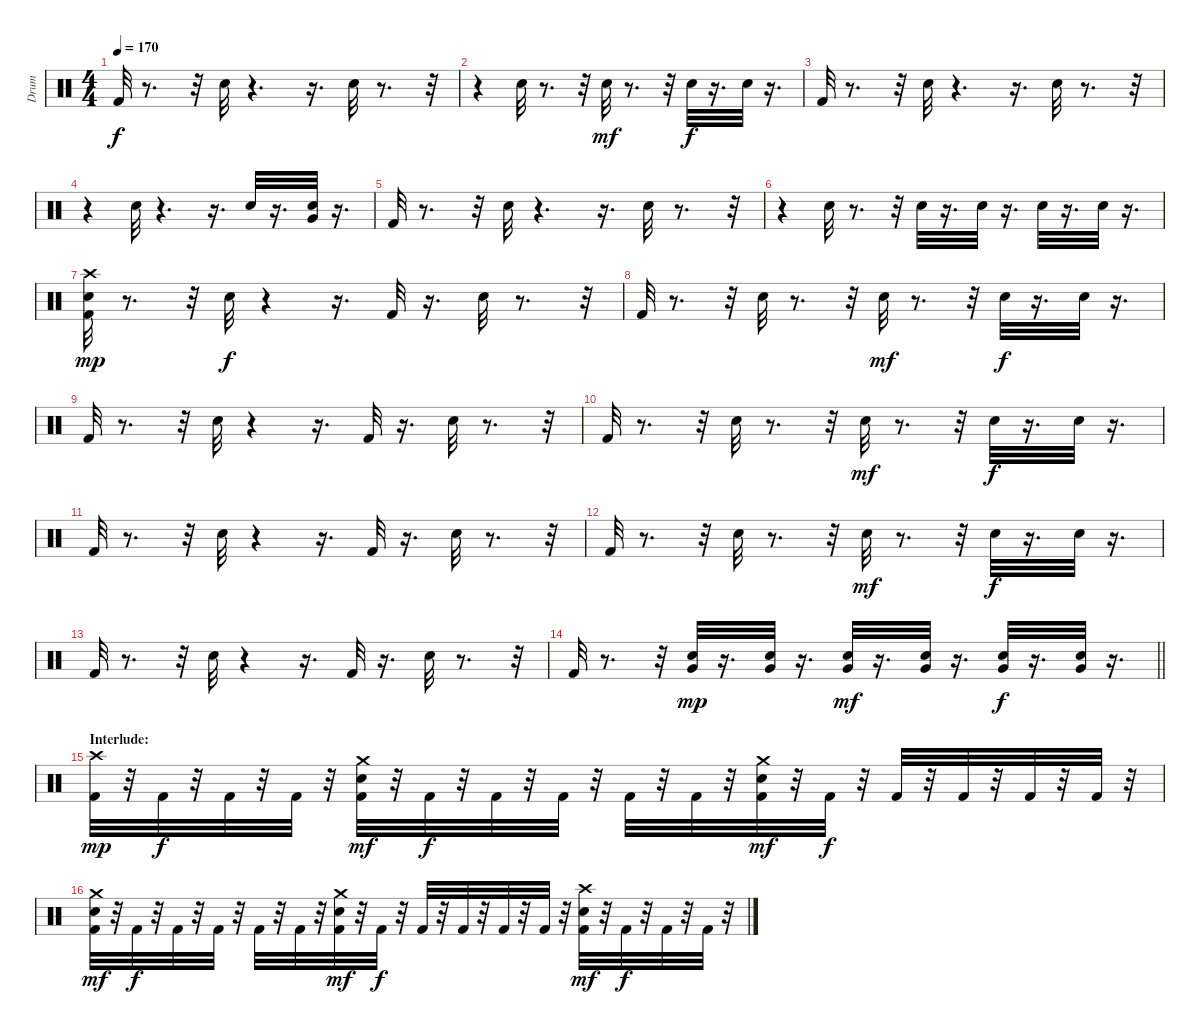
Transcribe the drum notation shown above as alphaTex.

\track ("Drum" "Drum") {instrument percussion}
\staff {score}
\articulation defaults
\ts (4 4)
\tempo 170
\clef neutral
\ks c "Kick (hit) 2".32{dy f}
r.8{d} r.32 "Snare (hit) 2".32 r.4{d} r.16{d} "Snare (hit) 2".32 r.8{d} r.32 |
r.4 "Snare (hit) 2".32 r.8{d} r.32 "Snare (hit) 2".32{dy mf} r.8{d} r.32 "Snare (hit) 2".32{dy f} r.16{d} "Snare (hit) 2".32 r.16{d} |
"Kick (hit) 2".32 r.8{d} r.32 "Snare (hit) 2".32 r.4{d} r.16{d} "Snare (hit) 2".32 r.8{d} r.32 |
r.4 "Snare (hit) 2".32 r.4{d} r.16{d} "Snare (hit) 2".32 r.16{d} ("Very Low Tom (hit)" "Snare (hit) 2").32 r.16{d} |
"Kick (hit) 2".32 r.8{d} r.32 "Snare (hit) 2".32 r.4{d} r.16{d} "Snare (hit) 2".32 r.8{d} r.32 |
r.4 "Snare (hit) 2".32 r.8{d} r.32 "Snare (hit) 2".32 r.16{d} "Snare (hit) 2".32 r.16{d} "Snare (hit) 2".32 r.16{d} "Snare (hit) 2".32 r.16{d} |
("Snare (hit) 2" "Crash high (hit)" "Kick (hit) 2").32{dy mp} r.8{d} r.32 "Snare (hit) 2".32{dy f} r.4 r.16{d} "Kick (hit) 2".32 r.16{d} "Snare (hit) 2".32 r.8{d} r.32 |
"Kick (hit) 2".32 r.8{d} r.32 "Snare (hit) 2".32 r.8{d} r.32 "Snare (hit) 2".32{dy mf} r.8{d} r.32 "Snare (hit) 2".32{dy f} r.16{d} "Snare (hit) 2".32 r.16{d} |
"Kick (hit) 2".32 r.8{d} r.32 "Snare (hit) 2".32 r.4 r.16{d} "Kick (hit) 2".32 r.16{d} "Snare (hit) 2".32 r.8{d} r.32 |
"Kick (hit) 2".32 r.8{d} r.32 "Snare (hit) 2".32 r.8{d} r.32 "Snare (hit) 2".32{dy mf} r.8{d} r.32 "Snare (hit) 2".32{dy f} r.16{d} "Snare (hit) 2".32 r.16{d} |
"Kick (hit) 2".32 r.8{d} r.32 "Snare (hit) 2".32 r.4 r.16{d} "Kick (hit) 2".32 r.16{d} "Snare (hit) 2".32 r.8{d} r.32 |
"Kick (hit) 2".32 r.8{d} r.32 "Snare (hit) 2".32 r.8{d} r.32 "Snare (hit) 2".32{dy mf} r.8{d} r.32 "Snare (hit) 2".32{dy f} r.16{d} "Snare (hit) 2".32 r.16{d} |
"Kick (hit) 2".32 r.8{d} r.32 "Snare (hit) 2".32 r.4 r.16{d} "Kick (hit) 2".32 r.16{d} "Snare (hit) 2".32 r.8{d} r.32 |
\barLineRight lightlight "Kick (hit) 2".32
r.8{d} r.32 ("Very Low Tom (hit)" "Snare (hit) 2").32{dy mp} r.16{d} ("Very Low Tom (hit)" "Snare (hit) 2").32 r.16{d} ("Very Low Tom (hit)" "Snare (hit) 2").32{dy mf} r.16{d} ("Very Low Tom (hit)" "Snare (hit) 2").32 r.16{d} ("Very Low Tom (hit)" "Snare (hit) 2").32{dy f} r.16{d} ("Very Low Tom (hit)" "Snare (hit) 2").32 r.16{d} |
\section ("" "Interlude:")
("Crash high (hit)" "Kick (hit) 2").32{dy mp} r.32 "Kick (hit) 2".32{dy f} r.32 "Kick (hit) 2".32 r.32 "Kick (hit) 2".32 r.32 ("Snare (hit) 2" "Crash medium (hit)" "Kick (hit) 2").32{dy mf} r.32 "Kick (hit) 2".32{dy f} r.32 "Kick (hit) 2".32 r.32 "Kick (hit) 2".32 r.32 "Kick (hit) 2".32 r.32 "Kick (hit) 2".32 r.32 ("Crash medium (hit)" "Snare (hit) 2" "Kick (hit) 2").32{dy mf} r.32 "Kick (hit) 2".32{dy f} r.32 "Kick (hit) 2".32 r.32 "Kick (hit) 2".32 r.32 "Kick (hit) 2".32 r.32 "Kick (hit) 2".32 r.32 |
("Snare (hit) 2" "Crash medium (hit)" "Kick (hit) 2").32{dy mf} r.32 "Kick (hit) 2".32{dy f} r.32 "Kick (hit) 2".32 r.32 "Kick (hit) 2".32 r.32 "Kick (hit) 2".32 r.32 "Kick (hit) 2".32 r.32 ("Snare (hit) 2" "Crash medium (hit)" "Kick (hit) 2").32{dy mf} r.32 "Kick (hit) 2".32{dy f} r.32 "Kick (hit) 2".32 r.32 "Kick (hit) 2".32 r.32 "Kick (hit) 2".32 r.32 "Kick (hit) 2".32 r.32 ("Crash high (hit)" "Snare (hit) 2" "Kick (hit) 2").32{dy mf} r.32 "Kick (hit) 2".32{dy f} r.32 "Kick (hit) 2".32 r.32 "Kick (hit) 2".32 r.32
